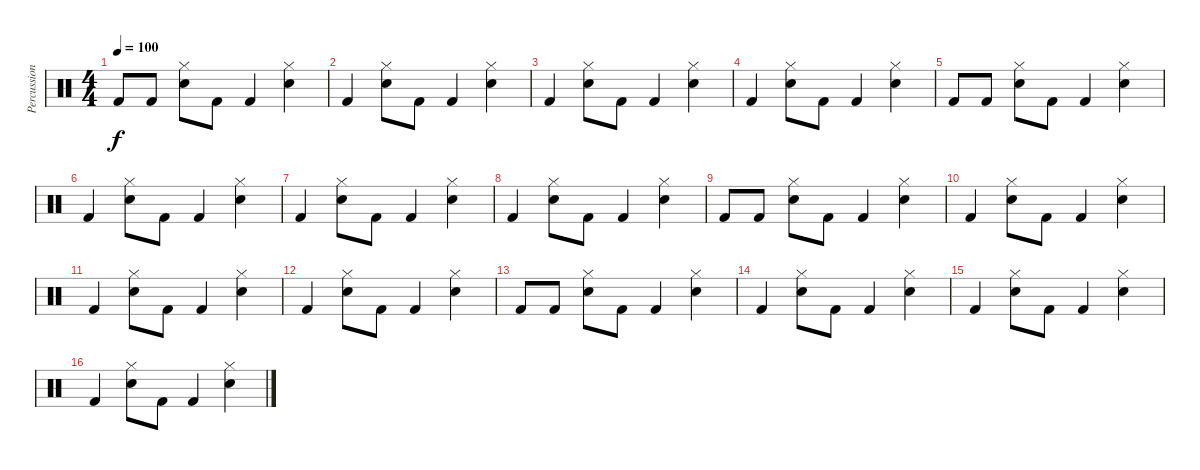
\track ("Percussion" "Percussion") {instrument percussion}
\staff {score}
\articulation defaults
\ts (4 4)
\tempo 100
\clef neutral
\ks c "Kick (hit) 2".8{dy f} "Kick (hit) 2".8
("Snare (hit) 2" "Hi-Hat (closed)").8 "Kick (hit) 2".8 "Kick (hit) 2".4 ("Snare (hit) 2" "Hi-Hat (closed)").4 |
"Kick (hit) 2".4 ("Snare (hit) 2" "Hi-Hat (closed)").8 "Kick (hit) 2".8 "Kick (hit) 2".4 ("Snare (hit) 2" "Hi-Hat (closed)").4 |
"Kick (hit) 2".4 ("Snare (hit) 2" "Hi-Hat (closed)").8 "Kick (hit) 2".8 "Kick (hit) 2".4 ("Snare (hit) 2" "Hi-Hat (closed)").4 |
"Kick (hit) 2".4 ("Snare (hit) 2" "Hi-Hat (closed)").8 "Kick (hit) 2".8 "Kick (hit) 2".4 ("Snare (hit) 2" "Hi-Hat (closed)").4 |
"Kick (hit) 2".8 "Kick (hit) 2".8 ("Snare (hit) 2" "Hi-Hat (closed)").8 "Kick (hit) 2".8 "Kick (hit) 2".4 ("Snare (hit) 2" "Hi-Hat (closed)").4 |
"Kick (hit) 2".4 ("Snare (hit) 2" "Hi-Hat (closed)").8 "Kick (hit) 2".8 "Kick (hit) 2".4 ("Snare (hit) 2" "Hi-Hat (closed)").4 |
"Kick (hit) 2".4 ("Snare (hit) 2" "Hi-Hat (closed)").8 "Kick (hit) 2".8 "Kick (hit) 2".4 ("Snare (hit) 2" "Hi-Hat (closed)").4 |
"Kick (hit) 2".4 ("Snare (hit) 2" "Hi-Hat (closed)").8 "Kick (hit) 2".8 "Kick (hit) 2".4 ("Snare (hit) 2" "Hi-Hat (closed)").4 |
"Kick (hit) 2".8 "Kick (hit) 2".8 ("Snare (hit) 2" "Hi-Hat (closed)").8 "Kick (hit) 2".8 "Kick (hit) 2".4 ("Snare (hit) 2" "Hi-Hat (closed)").4 |
"Kick (hit) 2".4 ("Snare (hit) 2" "Hi-Hat (closed)").8 "Kick (hit) 2".8 "Kick (hit) 2".4 ("Snare (hit) 2" "Hi-Hat (closed)").4 |
"Kick (hit) 2".4 ("Snare (hit) 2" "Hi-Hat (closed)").8 "Kick (hit) 2".8 "Kick (hit) 2".4 ("Snare (hit) 2" "Hi-Hat (closed)").4 |
"Kick (hit) 2".4 ("Snare (hit) 2" "Hi-Hat (closed)").8 "Kick (hit) 2".8 "Kick (hit) 2".4 ("Snare (hit) 2" "Hi-Hat (closed)").4 |
"Kick (hit) 2".8 "Kick (hit) 2".8 ("Snare (hit) 2" "Hi-Hat (closed)").8 "Kick (hit) 2".8 "Kick (hit) 2".4 ("Snare (hit) 2" "Hi-Hat (closed)").4 |
"Kick (hit) 2".4 ("Snare (hit) 2" "Hi-Hat (closed)").8 "Kick (hit) 2".8 "Kick (hit) 2".4 ("Snare (hit) 2" "Hi-Hat (closed)").4 |
"Kick (hit) 2".4 ("Snare (hit) 2" "Hi-Hat (closed)").8 "Kick (hit) 2".8 "Kick (hit) 2".4 ("Snare (hit) 2" "Hi-Hat (closed)").4 |
"Kick (hit) 2".4 ("Snare (hit) 2" "Hi-Hat (closed)").8 "Kick (hit) 2".8 "Kick (hit) 2".4 ("Snare (hit) 2" "Hi-Hat (closed)").4
